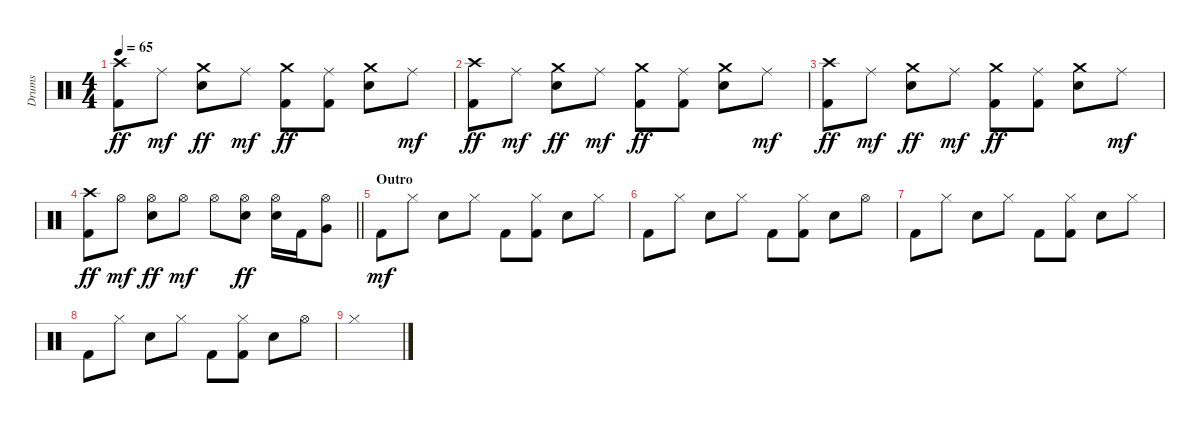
\track ("Drums" "Drums") {instrument percussion}
\staff {score}
\articulation defaults
\ts (4 4)
\tempo 65
\clef neutral
\ks c
("Crash high (hit)" "Kick (hit) 2").8{dy ff} "Ride (middle)".8{dy mf} ("Crash medium (hit)" "Electric Snare (hit)").8{dy ff} "Ride (middle)".8{dy mf} ("Crash medium (hit)" "Kick (hit) 2").8{dy ff} ("Ride (middle)" "Kick (hit) 2").8 ("Crash medium (hit)" "Electric Snare (hit)").8 "Ride (middle)".8{dy mf} |
("Crash high (hit)" "Kick (hit) 2").8{dy ff} "Ride (middle)".8{dy mf} ("Crash medium (hit)" "Electric Snare (hit)").8{dy ff} "Ride (middle)".8{dy mf} ("Crash medium (hit)" "Kick (hit) 2").8{dy ff} ("Ride (middle)" "Kick (hit) 2").8 ("Crash medium (hit)" "Electric Snare (hit)").8 "Ride (middle)".8{dy mf} |
("Crash high (hit)" "Kick (hit) 2").8{dy ff} "Ride (middle)".8{dy mf} ("Crash medium (hit)" "Electric Snare (hit)").8{dy ff} "Ride (middle)".8{dy mf} ("Crash medium (hit)" "Kick (hit) 2").8{dy ff} ("Ride (middle)" "Kick (hit) 2").8 ("Crash medium (hit)" "Electric Snare (hit)").8 "Ride (middle)".8{dy mf} |
\barLineRight lightlight
("Crash high (hit)" "Kick (hit) 2").8{dy ff} "Hi-Hat (open)".8{dy mf} ("Hi-Hat (open)" "Electric Snare (hit)").8{dy ff} "Hi-Hat (open)".8{dy mf} "Hi-Hat (open)".8 ("Hi-Hat (open)" "Electric Snare (hit)").8{dy ff} ("Hi-Hat (open)" "Electric Snare (hit)").16 "Kick (hit) 2".16 ("Hi-Hat (open)" "Very Low Tom (hit)").8 |
\section ("" "Outro")
"Kick (hit) 2".8{dy mf} "Hi-Hat (closed)".8 "Electric Snare (hit)".8 "Hi-Hat (closed)".8 "Kick (hit) 2".8 ("Hi-Hat (closed)" "Kick (hit) 2").8 "Electric Snare (hit)".8 "Hi-Hat (closed)".8 |
"Kick (hit) 2".8 "Hi-Hat (closed)".8 "Electric Snare (hit)".8 "Hi-Hat (closed)".8 "Kick (hit) 2".8 ("Hi-Hat (closed)" "Kick (hit) 2").8 "Electric Snare (hit)".8 "Hi-Hat (open)".8 |
"Kick (hit) 2".8 "Hi-Hat (closed)".8 "Electric Snare (hit)".8 "Hi-Hat (closed)".8 "Kick (hit) 2".8 ("Hi-Hat (closed)" "Kick (hit) 2").8 "Electric Snare (hit)".8 "Hi-Hat (closed)".8 |
"Kick (hit) 2".8 "Hi-Hat (closed)".8 "Electric Snare (hit)".8 "Hi-Hat (closed)".8 "Kick (hit) 2".8 ("Hi-Hat (closed)" "Kick (hit) 2").8 "Electric Snare (hit)".8 "Hi-Hat (open)".8 |
"Hi-Hat (closed)".1
